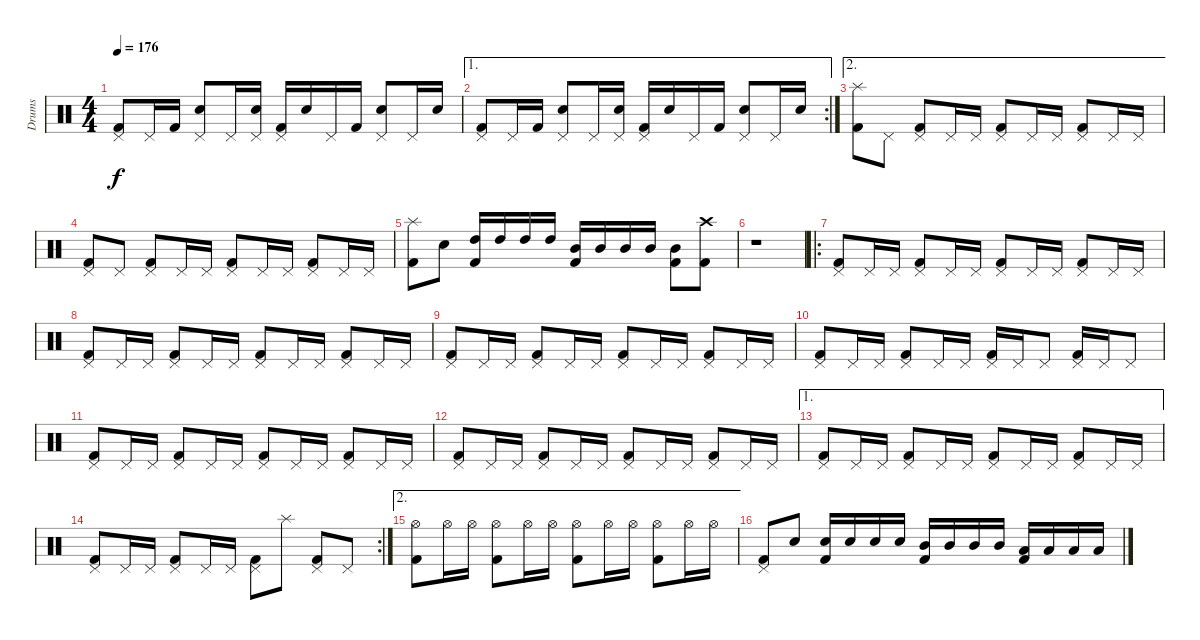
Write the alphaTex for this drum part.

\track ("Drums" "Drums") {instrument percussion}
\staff {score}
\articulation defaults
\ts (4 4)
\tempo 176
\clef neutral
\ks c
("Pedal Hi-Hat (hit)" "Kick (hit) 2").8{dy f} "Pedal Hi-Hat (hit)".16 "Kick (hit) 2".16 ("Pedal Hi-Hat (hit)" "Snare (hit) 2").8 "Pedal Hi-Hat (hit)".16 ("Pedal Hi-Hat (hit)" "Snare (hit) 2").16 ("Pedal Hi-Hat (hit)" "Kick (hit) 2").16 "Snare (hit) 2".16 "Pedal Hi-Hat (hit)".16 "Kick (hit) 2".16 ("Pedal Hi-Hat (hit)" "Snare (hit) 2").8 "Pedal Hi-Hat (hit)".16 "Snare (hit) 2".16 |
\ae 1
\rc 2
("Pedal Hi-Hat (hit)" "Kick (hit) 2").8 "Pedal Hi-Hat (hit)".16 "Kick (hit) 2".16 ("Pedal Hi-Hat (hit)" "Snare (hit) 2").8 "Pedal Hi-Hat (hit)".16 ("Pedal Hi-Hat (hit)" "Snare (hit) 2").16 ("Pedal Hi-Hat (hit)" "Kick (hit) 2").16 "Snare (hit) 2".16 "Pedal Hi-Hat (hit)".16 "Kick (hit) 2".16 ("Pedal Hi-Hat (hit)" "Snare (hit) 2").8 "Pedal Hi-Hat (hit)".16 "Snare (hit) 2".16 |
\ae 2
("Splash (hit)" "Kick (hit) 2").8 "Pedal Hi-Hat (hit)".8 ("Pedal Hi-Hat (hit)" "Kick (hit) 2").8 "Pedal Hi-Hat (hit)".16 "Pedal Hi-Hat (hit)".16 ("Pedal Hi-Hat (hit)" "Kick (hit) 2").8 "Pedal Hi-Hat (hit)".16 "Pedal Hi-Hat (hit)".16 ("Pedal Hi-Hat (hit)" "Kick (hit) 2").8 "Pedal Hi-Hat (hit)".16 "Pedal Hi-Hat (hit)".16 |
("Pedal Hi-Hat (hit)" "Kick (hit) 2").8 "Pedal Hi-Hat (hit)".8 ("Pedal Hi-Hat (hit)" "Kick (hit) 2").8 "Pedal Hi-Hat (hit)".16 "Pedal Hi-Hat (hit)".16 ("Pedal Hi-Hat (hit)" "Kick (hit) 2").8 "Pedal Hi-Hat (hit)".16 "Pedal Hi-Hat (hit)".16 ("Pedal Hi-Hat (hit)" "Kick (hit) 2").8 "Pedal Hi-Hat (hit)".16 "Pedal Hi-Hat (hit)".16 |
("Kick (hit) 2" "Splash (hit)").8 "Snare (hit) 2".8 ("High Tom (hit)" "Kick (hit) 2").16 "High Tom (hit)".16 "High Tom (hit)".16 "High Tom (hit)".16 ("Mid Tom (hit)" "Kick (hit) 2").16 "Mid Tom (hit)".16 "Mid Tom (hit)".16 "Mid Tom (hit)".16 ("Mid Tom (hit)" "Kick (hit) 2").8 ("Crash high (hit)" "Kick (hit) 2").8 |
r.1 |
\ro
("Pedal Hi-Hat (hit)" "Kick (hit) 2").8 "Pedal Hi-Hat (hit)".16 "Pedal Hi-Hat (hit)".16 ("Pedal Hi-Hat (hit)" "Kick (hit) 2").8 "Pedal Hi-Hat (hit)".16 "Pedal Hi-Hat (hit)".16 ("Pedal Hi-Hat (hit)" "Kick (hit) 2").8 "Pedal Hi-Hat (hit)".16 "Pedal Hi-Hat (hit)".16 ("Pedal Hi-Hat (hit)" "Kick (hit) 2").8 "Pedal Hi-Hat (hit)".16 "Pedal Hi-Hat (hit)".16 |
("Kick (hit) 2" "Pedal Hi-Hat (hit)").8 "Pedal Hi-Hat (hit)".16 "Pedal Hi-Hat (hit)".16 ("Kick (hit) 2" "Pedal Hi-Hat (hit)").8 "Pedal Hi-Hat (hit)".16 "Pedal Hi-Hat (hit)".16 ("Kick (hit) 2" "Pedal Hi-Hat (hit)").8 "Pedal Hi-Hat (hit)".16 "Pedal Hi-Hat (hit)".16 ("Kick (hit) 2" "Pedal Hi-Hat (hit)").8 "Pedal Hi-Hat (hit)".16 "Pedal Hi-Hat (hit)".16 |
("Kick (hit) 2" "Pedal Hi-Hat (hit)").8 "Pedal Hi-Hat (hit)".16 "Pedal Hi-Hat (hit)".16 ("Kick (hit) 2" "Pedal Hi-Hat (hit)").8 "Pedal Hi-Hat (hit)".16 "Pedal Hi-Hat (hit)".16 ("Kick (hit) 2" "Pedal Hi-Hat (hit)").8 "Pedal Hi-Hat (hit)".16 "Pedal Hi-Hat (hit)".16 ("Kick (hit) 2" "Pedal Hi-Hat (hit)").8 "Pedal Hi-Hat (hit)".16 "Pedal Hi-Hat (hit)".16 |
("Pedal Hi-Hat (hit)" "Kick (hit) 2").8 "Pedal Hi-Hat (hit)".16 "Pedal Hi-Hat (hit)".16 ("Pedal Hi-Hat (hit)" "Kick (hit) 2").8 "Pedal Hi-Hat (hit)".16 "Pedal Hi-Hat (hit)".16 ("Pedal Hi-Hat (hit)" "Kick (hit) 2").16 "Pedal Hi-Hat (hit)".16 "Pedal Hi-Hat (hit)".8 ("Kick (hit) 2" "Pedal Hi-Hat (hit)").16 "Pedal Hi-Hat (hit)".16 "Pedal Hi-Hat (hit)".8 |
("Kick (hit) 2" "Pedal Hi-Hat (hit)").8 "Pedal Hi-Hat (hit)".16 "Pedal Hi-Hat (hit)".16 ("Kick (hit) 2" "Pedal Hi-Hat (hit)").8 "Pedal Hi-Hat (hit)".16 "Pedal Hi-Hat (hit)".16 ("Kick (hit) 2" "Pedal Hi-Hat (hit)").8 "Pedal Hi-Hat (hit)".16 "Pedal Hi-Hat (hit)".16 ("Kick (hit) 2" "Pedal Hi-Hat (hit)").8 "Pedal Hi-Hat (hit)".16 "Pedal Hi-Hat (hit)".16 |
("Kick (hit) 2" "Pedal Hi-Hat (hit)").8 "Pedal Hi-Hat (hit)".16 "Pedal Hi-Hat (hit)".16 ("Kick (hit) 2" "Pedal Hi-Hat (hit)").8 "Pedal Hi-Hat (hit)".16 "Pedal Hi-Hat (hit)".16 ("Kick (hit) 2" "Pedal Hi-Hat (hit)").8 "Pedal Hi-Hat (hit)".16 "Pedal Hi-Hat (hit)".16 ("Kick (hit) 2" "Pedal Hi-Hat (hit)").8 "Pedal Hi-Hat (hit)".16 "Pedal Hi-Hat (hit)".16 |
\ae 1
("Kick (hit) 2" "Pedal Hi-Hat (hit)").8 "Pedal Hi-Hat (hit)".16 "Pedal Hi-Hat (hit)".16 ("Kick (hit) 2" "Pedal Hi-Hat (hit)").8 "Pedal Hi-Hat (hit)".16 "Pedal Hi-Hat (hit)".16 ("Kick (hit) 2" "Pedal Hi-Hat (hit)").8 "Pedal Hi-Hat (hit)".16 "Pedal Hi-Hat (hit)".16 ("Kick (hit) 2" "Pedal Hi-Hat (hit)").8 "Pedal Hi-Hat (hit)".16 "Pedal Hi-Hat (hit)".16 |
\rc 2
("Pedal Hi-Hat (hit)" "Kick (hit) 2").8 "Pedal Hi-Hat (hit)".16 "Pedal Hi-Hat (hit)".16 ("Pedal Hi-Hat (hit)" "Kick (hit) 2").8 "Pedal Hi-Hat (hit)".16 "Pedal Hi-Hat (hit)".16 ("Pedal Hi-Hat (hit)" "Kick (hit) 2").8 "Splash (hit)".8 ("Pedal Hi-Hat (hit)" "Kick (hit) 2").8 "Pedal Hi-Hat (hit)".8 |
\ae 2
("Kick (hit) 2" "Hi-Hat (open)").8 "Hi-Hat (open)".16 "Hi-Hat (open)".16 ("Kick (hit) 2" "Hi-Hat (open)").8 "Hi-Hat (open)".16 "Hi-Hat (open)".16 ("Kick (hit) 2" "Hi-Hat (open)").8 "Hi-Hat (open)".16 "Hi-Hat (open)".16 ("Kick (hit) 2" "Hi-Hat (open)").8 "Hi-Hat (open)".16 "Hi-Hat (open)".16 |
("Kick (hit) 2" "Pedal Hi-Hat (hit)").8 "Snare (hit) 2".8 ("Snare (hit) 2" "Kick (hit) 2").16 "Snare (hit) 2".16 "Snare (hit) 2".16 "Snare (hit) 2".16 ("Mid Tom (hit)" "Kick (hit) 2").16 "Mid Tom (hit)".16 "Mid Tom (hit)".16 "Mid Tom (hit)".16 ("Low Tom (hit)" "Kick (hit) 2").16 "Low Tom (hit)".16 "Low Tom (hit)".16 "Low Tom (hit)".16
